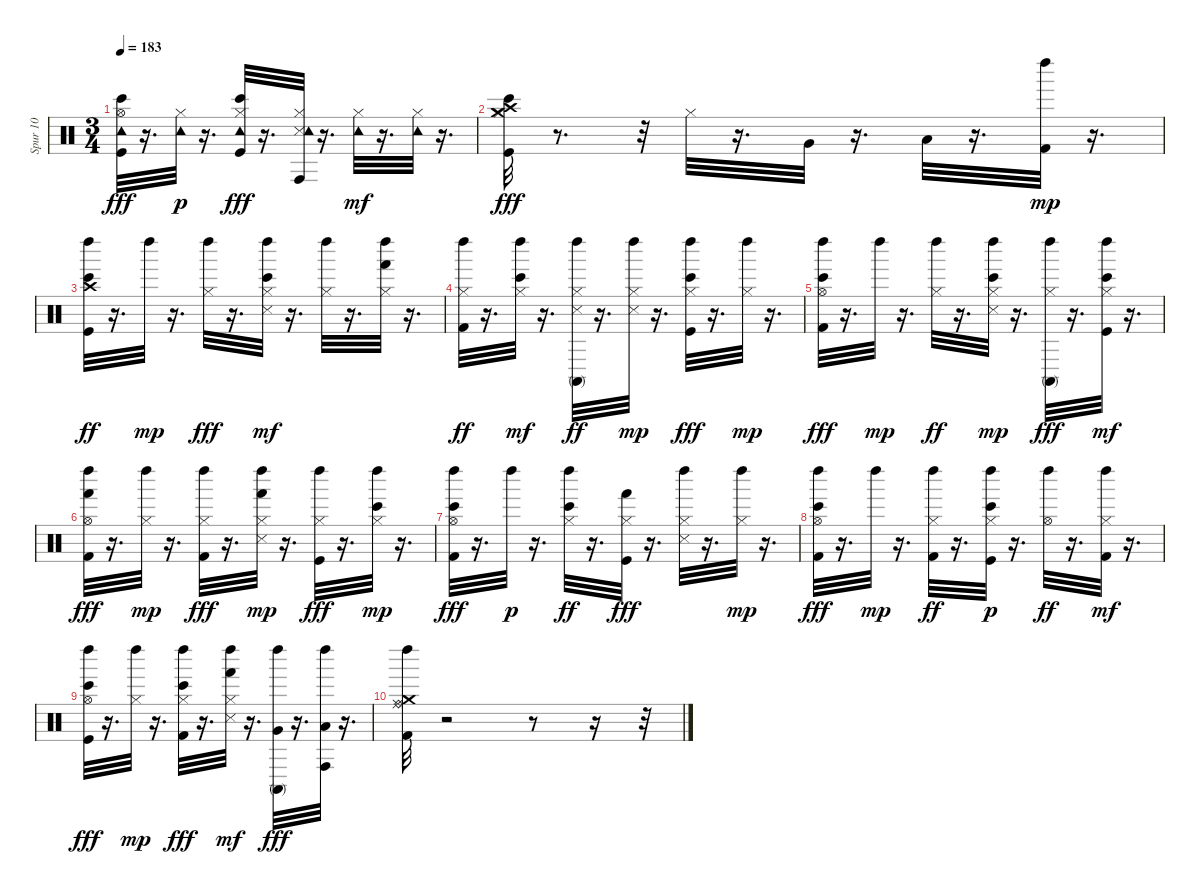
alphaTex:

\track ("Spur 10" "Spur 10") {instrument percussion}
\staff {score}
\articulation defaults
\ts (3 4)
\tempo 183
\clef neutral
\ks c
("Kick (hit)" "Hi-Hat (open)" "Tambourine (hit)" "Bongo High (hit)").32{dy fff} r.16{d} ("Hi-Hat (closed)" "Tambourine (hit)").32{dy p} r.16{d} ("Kick (hit)" "Hi-Hat (closed)" "Tambourine (hit)" "Bongo High (hit)").32{dy fff} r.16{d} ("Snare (side stick) 3" "Hi-Hat (closed)" "Tambourine (hit)" "Conga high (hit)").32 r.16{d} ("Hi-Hat (closed)" "Tambourine (hit)").32{dy mf} r.16{d} ("Hi-Hat (closed)" "Tambourine (hit)").32 r.16{d} |
("Kick (hit)" "Hi-Hat (closed)" "Crash high (hit)" "Crash medium (hit)" "Bongo High (hit)").32{dy fff} r.8{d} r.32 "Hi-Hat (closed)".32 r.16{d} "Very Low Tom (hit)".32 r.16{d} "Low Floor Tom (hit)".32 r.16{d} ("Kick (hit) 2" "Left Maraca (hit)").32{dy mp} r.16{d} |
("Kick (hit)" "Crash high (hit)" "Bongo High (hit)" "Left Maraca (hit)").32{dy ff} r.16{d} "Left Maraca (hit)".32{dy mp} r.16{d} ("Hi-Hat (closed)" "Left Maraca (hit)").32{dy fff} r.16{d} ("Snare (side stick) 3" "Hi-Hat (closed)" "Bongo High (hit)" "Left Maraca (hit)").32{dy mf} r.16{d} ("Hi-Hat (closed)" "Left Maraca (hit)").32 r.16{d} ("Hi-Hat (closed)" "Hand (hit)" "Left Maraca (hit)").32 r.16{d} |
("Kick (hit) 2" "Hi-Hat (closed)" "Left Maraca (hit)").32{dy ff} r.16{d} ("Hi-Hat (closed)" "Bongo High (hit)" "Left Maraca (hit)").32{dy mf} r.16{d} ("Snare (side stick) 3" "Hi-Hat (closed)" "Conga high (mute)" "Left Maraca (hit)").32{dy ff} r.16{d} ("Snare (side stick) 3" "Hi-Hat (closed)" "Left Maraca (hit)").32{dy mp} r.16{d} ("Kick (hit)" "Hi-Hat (closed)" "Bongo High (hit)" "Left Maraca (hit)").32{dy fff} r.16{d} ("Hi-Hat (closed)" "Left Maraca (hit)").32{dy mp} r.16{d} |
("Kick (hit) 2" "Hi-Hat (open)" "Bongo High (hit)" "Left Maraca (hit)").32{dy fff} r.16{d} "Left Maraca (hit)".32{dy mp} r.16{d} ("Hi-Hat (closed)" "Left Maraca (hit)").32{dy ff} r.16{d} ("Snare (side stick) 3" "Hi-Hat (closed)" "Bongo High (hit)" "Left Maraca (hit)").32{dy mp} r.16{d} ("Hi-Hat (closed)" "Conga high (mute)" "Left Maraca (hit)").32{dy fff} r.16{d} ("Kick (hit)" "Hi-Hat (closed)" "Bongo High (hit)" "Left Maraca (hit)").32{dy mf} r.16{d} |
("Kick (hit) 2" "Hi-Hat (open)" "Hand (hit)" "Left Maraca (hit)").32{dy fff} r.16{d} ("Hi-Hat (closed)" "Left Maraca (hit)").32{dy mp} r.16{d} ("Kick (hit) 2" "Hi-Hat (closed)" "Left Maraca (hit)").32{dy fff} r.16{d} ("Snare (side stick) 3" "Hi-Hat (closed)" "Hand (hit)" "Left Maraca (hit)").32{dy mp} r.16{d} ("Kick (hit)" "Hi-Hat (closed)" "Left Maraca (hit)").32{dy fff} r.16{d} ("Hi-Hat (closed)" "Bongo High (hit)" "Left Maraca (hit)").32{dy mp} r.16{d} |
("Kick (hit) 2" "Hi-Hat (open)" "Bongo High (hit)" "Left Maraca (hit)").32{dy fff} r.16{d} "Left Maraca (hit)".32{dy p} r.16{d} ("Hi-Hat (closed)" "Bongo High (hit)" "Left Maraca (hit)").32{dy ff} r.16{d} ("Kick (hit)" "Hi-Hat (closed)" "Hand (hit)").32{dy fff} r.16{d} ("Snare (side stick) 3" "Hi-Hat (closed)" "Left Maraca (hit)").32 r.16{d} ("Hi-Hat (closed)" "Left Maraca (hit)").32{dy mp} r.16{d} |
("Kick (hit) 2" "Hi-Hat (open)" "Bongo High (hit)" "Left Maraca (hit)").32{dy fff} r.16{d} "Left Maraca (hit)".32{dy mp} r.16{d} ("Kick (hit) 2" "Hi-Hat (closed)" "Left Maraca (hit)").32{dy ff} r.16{d} ("Kick (hit)" "Hi-Hat (closed)" "Bongo High (hit)" "Left Maraca (hit)").32{dy p} r.16{d} ("Hi-Hat (open)" "Left Maraca (hit)").32{dy ff} r.16{d} ("Kick (hit) 2" "Hi-Hat (closed)" "Left Maraca (hit)").32{dy mf} r.16{d} |
("Kick (hit)" "Hi-Hat (open)" "Bongo High (hit)" "Left Maraca (hit)").32{dy fff} r.16{d} ("Hi-Hat (closed)" "Left Maraca (hit)").32{dy mp} r.16{d} ("Kick (hit) 2" "Hi-Hat (closed)" "Bongo High (hit)" "Left Maraca (hit)").32{dy fff} r.16{d} ("Snare (side stick) 3" "Hi-Hat (closed)" "Hand (hit)" "Left Maraca (hit)").32{dy mf} r.16{d} ("Very Low Tom (hit)" "Conga high (mute)" "Left Maraca (hit)").32{dy fff} r.16{d} ("Low Floor Tom (hit)" "Conga high (hit)" "Left Maraca (hit)").32 r.16{d} |
("Kick (hit) 2" "Ride (middle)" "Ride (bell)" "Crash medium (hit)" "Left Maraca (hit)").32 r.2 r.8 r.16 r.32
